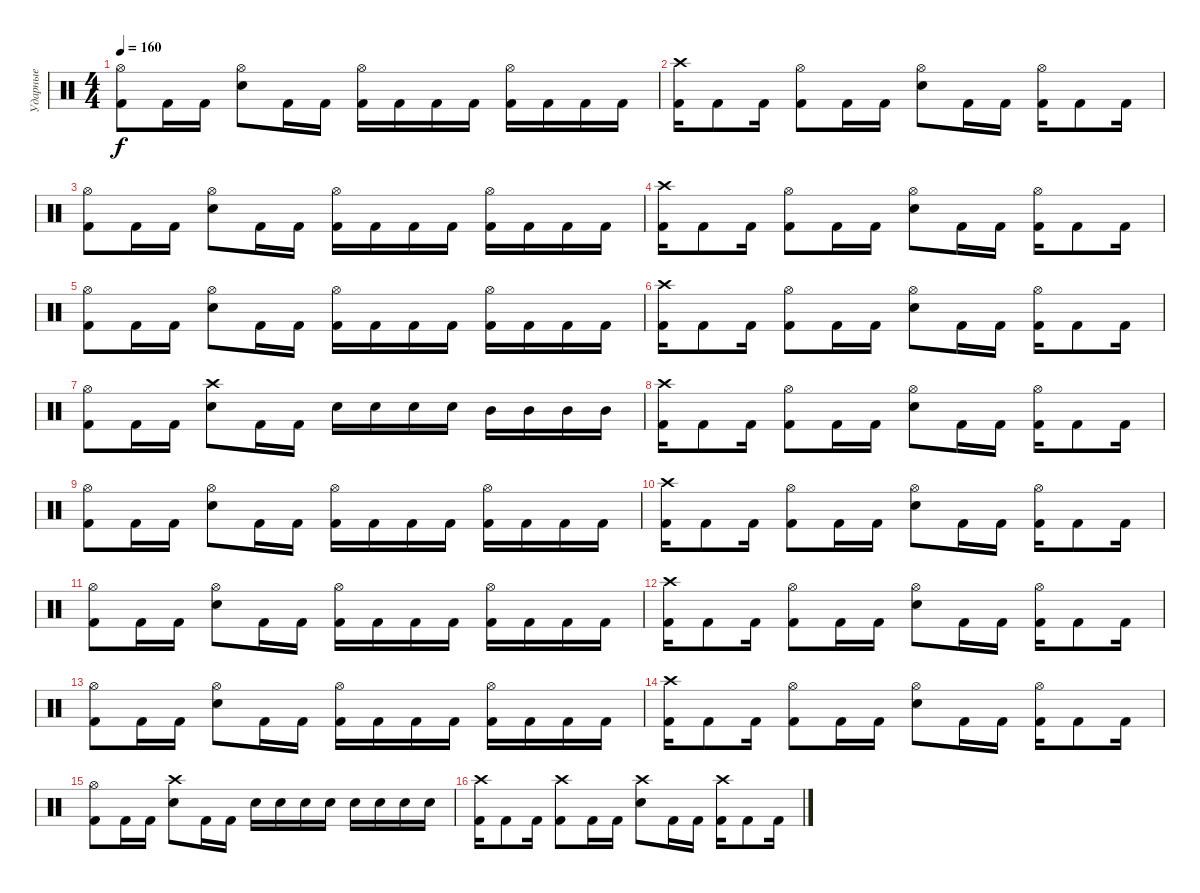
\track ("Ударные" "Ударные") {instrument percussion}
\staff {score}
\articulation defaults
\ts (4 4)
\tempo 160
\clef neutral
\ks c
("Hi-Hat (open)" "Kick (hit) 2").8{dy f} "Kick (hit) 2".16 "Kick (hit) 2".16 ("Hi-Hat (open)" "Electric Snare (hit)").8 "Kick (hit) 2".16 "Kick (hit) 2".16 ("Hi-Hat (open)" "Kick (hit) 2").16 "Kick (hit) 2".16 "Kick (hit) 2".16 "Kick (hit) 2".16 ("Hi-Hat (open)" "Kick (hit) 2").16 "Kick (hit) 2".16 "Kick (hit) 2".16 "Kick (hit) 2".16 |
("Crash high (hit)" "Kick (hit) 2").16 "Kick (hit) 2".8 "Kick (hit) 2".16 ("Hi-Hat (open)" "Kick (hit) 2").8 "Kick (hit) 2".16 "Kick (hit) 2".16 ("Hi-Hat (open)" "Electric Snare (hit)").8 "Kick (hit) 2".16 "Kick (hit) 2".16 ("Hi-Hat (open)" "Kick (hit) 2").16 "Kick (hit) 2".8 "Kick (hit) 2".16 |
("Hi-Hat (open)" "Kick (hit) 2").8 "Kick (hit) 2".16 "Kick (hit) 2".16 ("Hi-Hat (open)" "Electric Snare (hit)").8 "Kick (hit) 2".16 "Kick (hit) 2".16 ("Hi-Hat (open)" "Kick (hit) 2").16 "Kick (hit) 2".16 "Kick (hit) 2".16 "Kick (hit) 2".16 ("Hi-Hat (open)" "Kick (hit) 2").16 "Kick (hit) 2".16 "Kick (hit) 2".16 "Kick (hit) 2".16 |
("Crash high (hit)" "Kick (hit) 2").16 "Kick (hit) 2".8 "Kick (hit) 2".16 ("Hi-Hat (open)" "Kick (hit) 2").8 "Kick (hit) 2".16 "Kick (hit) 2".16 ("Hi-Hat (open)" "Electric Snare (hit)").8 "Kick (hit) 2".16 "Kick (hit) 2".16 ("Hi-Hat (open)" "Kick (hit) 2").16 "Kick (hit) 2".8 "Kick (hit) 2".16 |
("Hi-Hat (open)" "Kick (hit) 2").8 "Kick (hit) 2".16 "Kick (hit) 2".16 ("Hi-Hat (open)" "Electric Snare (hit)").8 "Kick (hit) 2".16 "Kick (hit) 2".16 ("Hi-Hat (open)" "Kick (hit) 2").16 "Kick (hit) 2".16 "Kick (hit) 2".16 "Kick (hit) 2".16 ("Hi-Hat (open)" "Kick (hit) 2").16 "Kick (hit) 2".16 "Kick (hit) 2".16 "Kick (hit) 2".16 |
("Crash high (hit)" "Kick (hit) 2").16 "Kick (hit) 2".8 "Kick (hit) 2".16 ("Hi-Hat (open)" "Kick (hit) 2").8 "Kick (hit) 2".16 "Kick (hit) 2".16 ("Hi-Hat (open)" "Electric Snare (hit)").8 "Kick (hit) 2".16 "Kick (hit) 2".16 ("Hi-Hat (open)" "Kick (hit) 2").16 "Kick (hit) 2".8 "Kick (hit) 2".16 |
("Hi-Hat (open)" "Kick (hit) 2").8 "Kick (hit) 2".16 "Kick (hit) 2".16 ("Crash high (hit)" "Electric Snare (hit)").8 "Kick (hit) 2".16 "Kick (hit) 2".16 "Electric Snare (hit)".16 "Electric Snare (hit)".16 "Electric Snare (hit)".16 "Electric Snare (hit)".16 "Mid Tom (hit)".16 "Mid Tom (hit)".16 "Mid Tom (hit)".16 "Mid Tom (hit)".16 |
("Crash high (hit)" "Kick (hit) 2").16 "Kick (hit) 2".8 "Kick (hit) 2".16 ("Hi-Hat (open)" "Kick (hit) 2").8 "Kick (hit) 2".16 "Kick (hit) 2".16 ("Hi-Hat (open)" "Electric Snare (hit)").8 "Kick (hit) 2".16 "Kick (hit) 2".16 ("Hi-Hat (open)" "Kick (hit) 2").16 "Kick (hit) 2".8 "Kick (hit) 2".16 |
("Hi-Hat (open)" "Kick (hit) 2").8 "Kick (hit) 2".16 "Kick (hit) 2".16 ("Hi-Hat (open)" "Electric Snare (hit)").8 "Kick (hit) 2".16 "Kick (hit) 2".16 ("Hi-Hat (open)" "Kick (hit) 2").16 "Kick (hit) 2".16 "Kick (hit) 2".16 "Kick (hit) 2".16 ("Hi-Hat (open)" "Kick (hit) 2").16 "Kick (hit) 2".16 "Kick (hit) 2".16 "Kick (hit) 2".16 |
("Crash high (hit)" "Kick (hit) 2").16 "Kick (hit) 2".8 "Kick (hit) 2".16 ("Hi-Hat (open)" "Kick (hit) 2").8 "Kick (hit) 2".16 "Kick (hit) 2".16 ("Hi-Hat (open)" "Electric Snare (hit)").8 "Kick (hit) 2".16 "Kick (hit) 2".16 ("Hi-Hat (open)" "Kick (hit) 2").16 "Kick (hit) 2".8 "Kick (hit) 2".16 |
("Hi-Hat (open)" "Kick (hit) 2").8 "Kick (hit) 2".16 "Kick (hit) 2".16 ("Hi-Hat (open)" "Electric Snare (hit)").8 "Kick (hit) 2".16 "Kick (hit) 2".16 ("Hi-Hat (open)" "Kick (hit) 2").16 "Kick (hit) 2".16 "Kick (hit) 2".16 "Kick (hit) 2".16 ("Hi-Hat (open)" "Kick (hit) 2").16 "Kick (hit) 2".16 "Kick (hit) 2".16 "Kick (hit) 2".16 |
("Crash high (hit)" "Kick (hit) 2").16 "Kick (hit) 2".8 "Kick (hit) 2".16 ("Hi-Hat (open)" "Kick (hit) 2").8 "Kick (hit) 2".16 "Kick (hit) 2".16 ("Hi-Hat (open)" "Electric Snare (hit)").8 "Kick (hit) 2".16 "Kick (hit) 2".16 ("Hi-Hat (open)" "Kick (hit) 2").16 "Kick (hit) 2".8 "Kick (hit) 2".16 |
("Hi-Hat (open)" "Kick (hit) 2").8 "Kick (hit) 2".16 "Kick (hit) 2".16 ("Hi-Hat (open)" "Electric Snare (hit)").8 "Kick (hit) 2".16 "Kick (hit) 2".16 ("Hi-Hat (open)" "Kick (hit) 2").16 "Kick (hit) 2".16 "Kick (hit) 2".16 "Kick (hit) 2".16 ("Hi-Hat (open)" "Kick (hit) 2").16 "Kick (hit) 2".16 "Kick (hit) 2".16 "Kick (hit) 2".16 |
("Crash high (hit)" "Kick (hit) 2").16 "Kick (hit) 2".8 "Kick (hit) 2".16 ("Hi-Hat (open)" "Kick (hit) 2").8 "Kick (hit) 2".16 "Kick (hit) 2".16 ("Hi-Hat (open)" "Electric Snare (hit)").8 "Kick (hit) 2".16 "Kick (hit) 2".16 ("Hi-Hat (open)" "Kick (hit) 2").16 "Kick (hit) 2".8 "Kick (hit) 2".16 |
("Hi-Hat (open)" "Kick (hit) 2").8 "Kick (hit) 2".16 "Kick (hit) 2".16 ("Crash high (hit)" "Electric Snare (hit)").8 "Kick (hit) 2".16 "Kick (hit) 2".16 "Electric Snare (hit)".16 "Electric Snare (hit)".16 "Electric Snare (hit)".16 "Electric Snare (hit)".16 "Electric Snare (hit)".16 "Electric Snare (hit)".16 "Electric Snare (hit)".16 "Electric Snare (hit)".16 |
("Crash high (hit)" "Kick (hit) 2").16 "Kick (hit) 2".8 "Kick (hit) 2".16 ("Crash high (hit)" "Kick (hit) 2").8 "Kick (hit) 2".16 "Kick (hit) 2".16 ("Crash high (hit)" "Electric Snare (hit)").8 "Kick (hit) 2".16 "Kick (hit) 2".16 ("Crash high (hit)" "Kick (hit) 2").16 "Kick (hit) 2".8 "Kick (hit) 2".16
